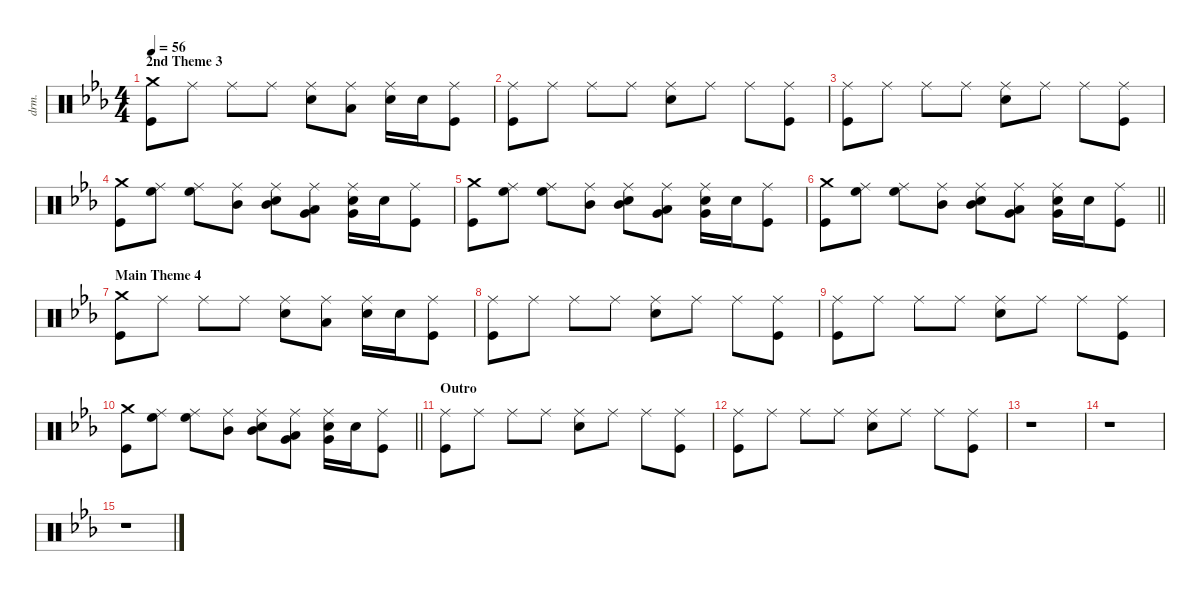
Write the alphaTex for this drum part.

\defaultSystemsLayout 4
\hideDynamics
\bracketExtendMode groupsimilarinstruments
\otherSystemsTrackNameOrientation horizontal
\track ("Percussion" "drm.") {defaultSystemsLayout 4 instrument percussion}
\staff {score}
\articulation defaults
\ts (4 4)
\section ("" "2nd Theme 3")
\tempo 56
\clef neutral
\ks cminor
("Crash medium (hit)"{acc forcenatural} "Kick (hit)"{acc forcenatural}).8{dy f} "Ride (middle)"{acc forcenatural}.8 "Ride (middle)"{acc forcenatural}.8 "Ride (middle)"{acc forcenatural}.8 ("Snare (hit) 2"{acc forcenatural} "Ride (middle)"{acc forcenatural}).8 ("Low Floor Tom (hit)"{acc forcenatural} "Ride (middle)"{acc forcenatural}).8 ("Snare (hit) 2"{acc forcenatural} "Ride (middle)"{acc forcenatural}).16 "Snare (hit) 2"{acc forcenatural}.16 ("Kick (hit)"{acc forcenatural} "Ride (middle)"{acc forcenatural}).8 |
("Ride (middle)"{acc forcenatural} "Kick (hit)"{acc forcenatural}).8 "Ride (middle)"{acc forcenatural}.8 "Ride (middle)"{acc forcenatural}.8 "Ride (middle)"{acc forcenatural}.8 ("Snare (hit) 2"{acc forcenatural} "Ride (middle)"{acc forcenatural}).8 "Ride (middle)"{acc forcenatural}.8 "Ride (middle)"{acc forcenatural}.8 ("Kick (hit)"{acc forcenatural} "Ride (middle)"{acc forcenatural}).8 |
("Ride (middle)"{acc forcenatural} "Kick (hit)"{acc forcenatural}).8 "Ride (middle)"{acc forcenatural}.8 "Ride (middle)"{acc forcenatural}.8 "Ride (middle)"{acc forcenatural}.8 ("Snare (hit) 2"{acc forcenatural} "Ride (middle)"{acc forcenatural}).8 "Ride (middle)"{acc forcenatural}.8 "Ride (middle)"{acc forcenatural}.8 ("Kick (hit)"{acc forcenatural} "Ride (middle)"{acc forcenatural}).8 |
("Crash medium (hit)"{acc forcenatural} "Kick (hit)"{acc forcenatural}).8 ("High Floor Tom (hit)"{acc forcenatural} "Ride (middle)"{acc forcenatural}).8 ("High Floor Tom (hit)"{acc forcenatural} "Ride (middle)"{acc forcenatural}).8 ("Mid Tom (hit)"{acc forcenatural} "Ride (middle)"{acc forcenatural}).8 ("Mid Tom (hit)"{acc forcenatural} "Snare (hit) 2"{acc forcenatural} "Ride (middle)"{acc forcenatural}).8 ("Very Low Tom (hit)"{acc forcenatural} "Low Floor Tom (hit)"{acc forcenatural} "Ride (middle)"{acc forcenatural}).8 ("Very Low Tom (hit)"{acc forcenatural} "Snare (hit) 2"{acc forcenatural} "Ride (middle)"{acc forcenatural}).16 "Snare (hit) 2"{acc forcenatural}.16 ("Kick (hit)"{acc forcenatural} "Ride (middle)"{acc forcenatural}).8 |
("Crash medium (hit)"{acc forcenatural} "Kick (hit)"{acc forcenatural}).8 ("High Floor Tom (hit)"{acc forcenatural} "Ride (middle)"{acc forcenatural}).8 ("High Floor Tom (hit)"{acc forcenatural} "Ride (middle)"{acc forcenatural}).8 ("Mid Tom (hit)"{acc forcenatural} "Ride (middle)"{acc forcenatural}).8 ("Mid Tom (hit)"{acc forcenatural} "Snare (hit) 2"{acc forcenatural} "Ride (middle)"{acc forcenatural}).8 ("Very Low Tom (hit)"{acc forcenatural} "Low Floor Tom (hit)"{acc forcenatural} "Ride (middle)"{acc forcenatural}).8 ("Very Low Tom (hit)"{acc forcenatural} "Snare (hit) 2"{acc forcenatural} "Ride (middle)"{acc forcenatural}).16 "Snare (hit) 2"{acc forcenatural}.16 ("Kick (hit)"{acc forcenatural} "Ride (middle)"{acc forcenatural}).8 |
\barLineRight lightlight
("Crash medium (hit)"{acc forcenatural} "Kick (hit)"{acc forcenatural}).8 ("High Floor Tom (hit)"{acc forcenatural} "Ride (middle)"{acc forcenatural}).8 ("High Floor Tom (hit)"{acc forcenatural} "Ride (middle)"{acc forcenatural}).8 ("Mid Tom (hit)"{acc forcenatural} "Ride (middle)"{acc forcenatural}).8 ("Mid Tom (hit)"{acc forcenatural} "Snare (hit) 2"{acc forcenatural} "Ride (middle)"{acc forcenatural}).8 ("Very Low Tom (hit)"{acc forcenatural} "Low Floor Tom (hit)"{acc forcenatural} "Ride (middle)"{acc forcenatural}).8 ("Very Low Tom (hit)"{acc forcenatural} "Snare (hit) 2"{acc forcenatural} "Ride (middle)"{acc forcenatural}).16 "Snare (hit) 2"{acc forcenatural}.16 ("Kick (hit)"{acc forcenatural} "Ride (middle)"{acc forcenatural}).8 |
\section ("" "Main Theme 4")
("Crash medium (hit)"{acc forcenatural} "Kick (hit)"{acc forcenatural}).8 "Ride (middle)"{acc forcenatural}.8 "Ride (middle)"{acc forcenatural}.8 "Ride (middle)"{acc forcenatural}.8 ("Snare (hit) 2"{acc forcenatural} "Ride (middle)"{acc forcenatural}).8 ("Low Floor Tom (hit)"{acc forcenatural} "Ride (middle)"{acc forcenatural}).8 ("Snare (hit) 2"{acc forcenatural} "Ride (middle)"{acc forcenatural}).16 "Snare (hit) 2"{acc forcenatural}.16 ("Kick (hit)"{acc forcenatural} "Ride (middle)"{acc forcenatural}).8 |
("Ride (middle)"{acc forcenatural} "Kick (hit)"{acc forcenatural}).8 "Ride (middle)"{acc forcenatural}.8 "Ride (middle)"{acc forcenatural}.8 "Ride (middle)"{acc forcenatural}.8 ("Snare (hit) 2"{acc forcenatural} "Ride (middle)"{acc forcenatural}).8 "Ride (middle)"{acc forcenatural}.8 "Ride (middle)"{acc forcenatural}.8 ("Kick (hit)"{acc forcenatural} "Ride (middle)"{acc forcenatural}).8 |
("Ride (middle)"{acc forcenatural} "Kick (hit)"{acc forcenatural}).8 "Ride (middle)"{acc forcenatural}.8 "Ride (middle)"{acc forcenatural}.8 "Ride (middle)"{acc forcenatural}.8 ("Snare (hit) 2"{acc forcenatural} "Ride (middle)"{acc forcenatural}).8 "Ride (middle)"{acc forcenatural}.8 "Ride (middle)"{acc forcenatural}.8 ("Kick (hit)"{acc forcenatural} "Ride (middle)"{acc forcenatural}).8 |
\barLineRight lightlight
("Crash medium (hit)"{acc forcenatural} "Kick (hit)"{acc forcenatural}).8 ("High Floor Tom (hit)"{acc forcenatural} "Ride (middle)"{acc forcenatural}).8 ("High Floor Tom (hit)"{acc forcenatural} "Ride (middle)"{acc forcenatural}).8 ("Mid Tom (hit)"{acc forcenatural} "Ride (middle)"{acc forcenatural}).8 ("Mid Tom (hit)"{acc forcenatural} "Snare (hit) 2"{acc forcenatural} "Ride (middle)"{acc forcenatural}).8 ("Very Low Tom (hit)"{acc forcenatural} "Low Floor Tom (hit)"{acc forcenatural} "Ride (middle)"{acc forcenatural}).8 ("Very Low Tom (hit)"{acc forcenatural} "Snare (hit) 2"{acc forcenatural} "Ride (middle)"{acc forcenatural}).16 "Snare (hit) 2"{acc forcenatural}.16 ("Kick (hit)"{acc forcenatural} "Ride (middle)"{acc forcenatural}).8 |
\section ("" "Outro")
("Ride (middle)"{acc forcenatural} "Kick (hit)"{acc forcenatural}).8 "Ride (middle)"{acc forcenatural}.8 "Ride (middle)"{acc forcenatural}.8 "Ride (middle)"{acc forcenatural}.8 ("Snare (hit) 2"{acc forcenatural} "Ride (middle)"{acc forcenatural}).8 "Ride (middle)"{acc forcenatural}.8 "Ride (middle)"{acc forcenatural}.8 ("Kick (hit)"{acc forcenatural} "Ride (middle)"{acc forcenatural}).8 |
("Ride (middle)"{acc forcenatural} "Kick (hit)"{acc forcenatural}).8 "Ride (middle)"{acc forcenatural}.8 "Ride (middle)"{acc forcenatural}.8 "Ride (middle)"{acc forcenatural}.8 ("Snare (hit) 2"{acc forcenatural} "Ride (middle)"{acc forcenatural}).8 "Ride (middle)"{acc forcenatural}.8 "Ride (middle)"{acc forcenatural}.8 ("Kick (hit)"{acc forcenatural} "Ride (middle)"{acc forcenatural}).8 |
r.1 |
r.1 |
r.1
